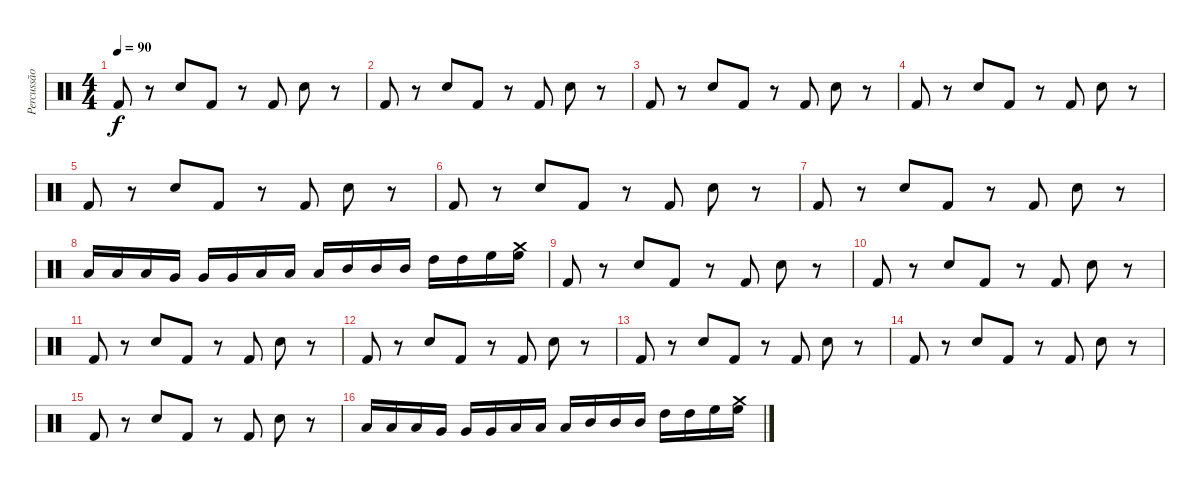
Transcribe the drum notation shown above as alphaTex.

\track ("Percussão" "Percussão") {instrument percussion}
\staff {score}
\articulation defaults
\ts (4 4)
\tempo 90
\clef neutral
\ks c "Kick (hit) 2".8{dy f}
r.8 "Electric Snare (hit)".8 "Kick (hit) 2".8 r.8 "Kick (hit) 2".8 "Electric Snare (hit)".8 r.8 |
"Kick (hit) 2".8 r.8 "Electric Snare (hit)".8 "Kick (hit) 2".8 r.8 "Kick (hit) 2".8 "Electric Snare (hit)".8 r.8 |
"Kick (hit) 2".8 r.8 "Electric Snare (hit)".8 "Kick (hit) 2".8 r.8 "Kick (hit) 2".8 "Electric Snare (hit)".8 r.8 |
"Kick (hit) 2".8 r.8 "Electric Snare (hit)".8 "Kick (hit) 2".8 r.8 "Kick (hit) 2".8 "Electric Snare (hit)".8 r.8 |
"Kick (hit) 2".8 r.8 "Electric Snare (hit)".8 "Kick (hit) 2".8 r.8 "Kick (hit) 2".8 "Electric Snare (hit)".8 r.8 |
"Kick (hit) 2".8 r.8 "Electric Snare (hit)".8 "Kick (hit) 2".8 r.8 "Kick (hit) 2".8 "Electric Snare (hit)".8 r.8 |
"Kick (hit) 2".8 r.8 "Electric Snare (hit)".8 "Kick (hit) 2".8 r.8 "Kick (hit) 2".8 "Electric Snare (hit)".8 r.8 |
"Low Floor Tom (hit)".16 "Low Floor Tom (hit)".16 "Low Floor Tom (hit)".16 "Very Low Tom (hit)".16 "Very Low Tom (hit)".16 "Very Low Tom (hit)".16 "Low Tom (hit)".16 "Low Tom (hit)".16 "Low Tom (hit)".16 "Mid Tom (hit)".16 "Mid Tom (hit)".16 "Mid Tom (hit)".16 "High Tom (hit)".16 "High Tom (hit)".16 "High Floor Tom (hit)".16 ("Crash medium (hit)" "High Floor Tom (hit)").16 |
"Kick (hit) 2".8 r.8 "Electric Snare (hit)".8 "Kick (hit) 2".8 r.8 "Kick (hit) 2".8 "Electric Snare (hit)".8 r.8 |
"Kick (hit) 2".8 r.8 "Electric Snare (hit)".8 "Kick (hit) 2".8 r.8 "Kick (hit) 2".8 "Electric Snare (hit)".8 r.8 |
"Kick (hit) 2".8 r.8 "Electric Snare (hit)".8 "Kick (hit) 2".8 r.8 "Kick (hit) 2".8 "Electric Snare (hit)".8 r.8 |
"Kick (hit) 2".8 r.8 "Electric Snare (hit)".8 "Kick (hit) 2".8 r.8 "Kick (hit) 2".8 "Electric Snare (hit)".8 r.8 |
"Kick (hit) 2".8 r.8 "Electric Snare (hit)".8 "Kick (hit) 2".8 r.8 "Kick (hit) 2".8 "Electric Snare (hit)".8 r.8 |
"Kick (hit) 2".8 r.8 "Electric Snare (hit)".8 "Kick (hit) 2".8 r.8 "Kick (hit) 2".8 "Electric Snare (hit)".8 r.8 |
"Kick (hit) 2".8 r.8 "Electric Snare (hit)".8 "Kick (hit) 2".8 r.8 "Kick (hit) 2".8 "Electric Snare (hit)".8 r.8 |
"Low Floor Tom (hit)".16 "Low Floor Tom (hit)".16 "Low Floor Tom (hit)".16 "Very Low Tom (hit)".16 "Very Low Tom (hit)".16 "Very Low Tom (hit)".16 "Low Tom (hit)".16 "Low Tom (hit)".16 "Low Tom (hit)".16 "Mid Tom (hit)".16 "Mid Tom (hit)".16 "Mid Tom (hit)".16 "High Tom (hit)".16 "High Tom (hit)".16 "High Floor Tom (hit)".16 ("Crash medium (hit)" "High Floor Tom (hit)").16
